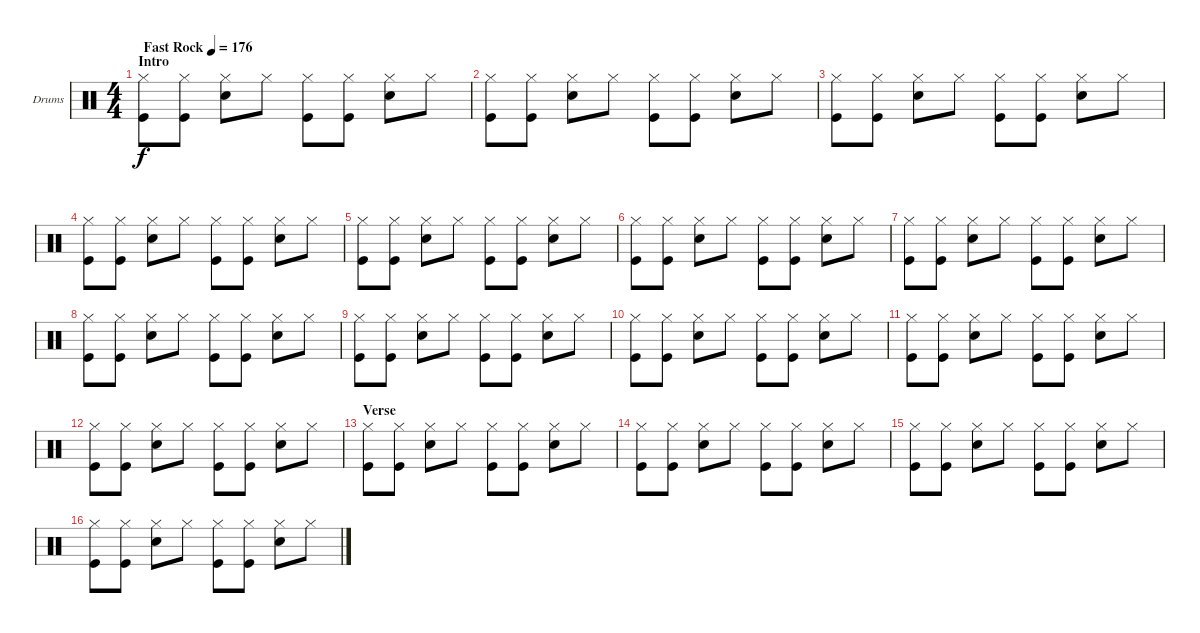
\defaultSystemsLayout 4
\bracketExtendMode groupsimilarinstruments
\firstSystemTrackNameOrientation horizontal
\otherSystemsTrackNameOrientation horizontal
\track ("Drumkit" "Drums") {instrument percussion}
\staff {score}
\articulation defaults
\ts (4 4)
\section ("" "Intro")
\tempo (176 "Fast Rock")
\clef neutral
\scale
1.05675
\ks c
("Hi-Hat (closed)" "Kick (hit)").8{lyrics (0 "") lyrics (1 "") lyrics (2 "") lyrics (3 "") lyrics (4 "") dy f} ("Hi-Hat (closed)" "Kick (hit)").8 ("Hi-Hat (closed)" "Snare (hit) 2").8 "Hi-Hat (closed)".8 ("Hi-Hat (closed)" "Kick (hit)").8 ("Hi-Hat (closed)" "Kick (hit)").8 ("Hi-Hat (closed)" "Snare (hit) 2").8 "Hi-Hat (closed)".8 |
\scale
0.943253 ("Hi-Hat (closed)" "Kick (hit)").8 ("Hi-Hat (closed)" "Kick (hit)").8 ("Hi-Hat (closed)" "Snare (hit) 2").8 "Hi-Hat (closed)".8 ("Hi-Hat (closed)" "Kick (hit)").8 ("Hi-Hat (closed)" "Kick (hit)").8 ("Hi-Hat (closed)" "Snare (hit) 2").8 "Hi-Hat (closed)".8 |
\scale
1.02648 ("Hi-Hat (closed)" "Kick (hit)").8 ("Hi-Hat (closed)" "Kick (hit)").8 ("Hi-Hat (closed)" "Snare (hit) 2").8 "Hi-Hat (closed)".8 ("Hi-Hat (closed)" "Kick (hit)").8 ("Hi-Hat (closed)" "Kick (hit)").8 ("Hi-Hat (closed)" "Snare (hit) 2").8 "Hi-Hat (closed)".8 |
\scale
0.973518 ("Hi-Hat (closed)" "Kick (hit)").8 ("Hi-Hat (closed)" "Kick (hit)").8 ("Hi-Hat (closed)" "Snare (hit) 2").8 "Hi-Hat (closed)".8 ("Hi-Hat (closed)" "Kick (hit)").8 ("Hi-Hat (closed)" "Kick (hit)").8 ("Hi-Hat (closed)" "Snare (hit) 2").8 "Hi-Hat (closed)".8 |
\scale
1.02648 ("Hi-Hat (closed)" "Kick (hit)").8 ("Hi-Hat (closed)" "Kick (hit)").8 ("Hi-Hat (closed)" "Snare (hit) 2").8 "Hi-Hat (closed)".8 ("Hi-Hat (closed)" "Kick (hit)").8 ("Hi-Hat (closed)" "Kick (hit)").8 ("Hi-Hat (closed)" "Snare (hit) 2").8 "Hi-Hat (closed)".8 |
\scale
0.973518 ("Hi-Hat (closed)" "Kick (hit)").8 ("Hi-Hat (closed)" "Kick (hit)").8 ("Hi-Hat (closed)" "Snare (hit) 2").8 "Hi-Hat (closed)".8 ("Hi-Hat (closed)" "Kick (hit)").8 ("Hi-Hat (closed)" "Kick (hit)").8 ("Hi-Hat (closed)" "Snare (hit) 2").8 "Hi-Hat (closed)".8 |
\scale
1.02648 ("Hi-Hat (closed)" "Kick (hit)").8 ("Hi-Hat (closed)" "Kick (hit)").8 ("Hi-Hat (closed)" "Snare (hit) 2").8 "Hi-Hat (closed)".8 ("Hi-Hat (closed)" "Kick (hit)").8 ("Hi-Hat (closed)" "Kick (hit)").8 ("Hi-Hat (closed)" "Snare (hit) 2").8 "Hi-Hat (closed)".8 |
\scale
0.973518 ("Hi-Hat (closed)" "Kick (hit)").8 ("Hi-Hat (closed)" "Kick (hit)").8 ("Hi-Hat (closed)" "Snare (hit) 2").8 "Hi-Hat (closed)".8 ("Hi-Hat (closed)" "Kick (hit)").8 ("Hi-Hat (closed)" "Kick (hit)").8 ("Hi-Hat (closed)" "Snare (hit) 2").8 "Hi-Hat (closed)".8 |
\scale
1.02648 ("Hi-Hat (closed)" "Kick (hit)").8 ("Hi-Hat (closed)" "Kick (hit)").8 ("Hi-Hat (closed)" "Snare (hit) 2").8 "Hi-Hat (closed)".8 ("Hi-Hat (closed)" "Kick (hit)").8 ("Hi-Hat (closed)" "Kick (hit)").8 ("Hi-Hat (closed)" "Snare (hit) 2").8 "Hi-Hat (closed)".8 |
\scale
0.973518 ("Hi-Hat (closed)" "Kick (hit)").8 ("Hi-Hat (closed)" "Kick (hit)").8 ("Hi-Hat (closed)" "Snare (hit) 2").8 "Hi-Hat (closed)".8 ("Hi-Hat (closed)" "Kick (hit)").8 ("Hi-Hat (closed)" "Kick (hit)").8 ("Hi-Hat (closed)" "Snare (hit) 2").8 "Hi-Hat (closed)".8 |
\scale
1.02648 ("Hi-Hat (closed)" "Kick (hit)").8 ("Hi-Hat (closed)" "Kick (hit)").8 ("Hi-Hat (closed)" "Snare (hit) 2").8 "Hi-Hat (closed)".8 ("Hi-Hat (closed)" "Kick (hit)").8 ("Hi-Hat (closed)" "Kick (hit)").8 ("Hi-Hat (closed)" "Snare (hit) 2").8 "Hi-Hat (closed)".8 |
\scale
0.973518 ("Hi-Hat (closed)" "Kick (hit)").8 ("Hi-Hat (closed)" "Kick (hit)").8 ("Hi-Hat (closed)" "Snare (hit) 2").8 "Hi-Hat (closed)".8 ("Hi-Hat (closed)" "Kick (hit)").8 ("Hi-Hat (closed)" "Kick (hit)").8 ("Hi-Hat (closed)" "Snare (hit) 2").8 "Hi-Hat (closed)".8 |
\section ("" "Verse")
\scale
1.02648 ("Hi-Hat (closed)" "Kick (hit)").8 ("Hi-Hat (closed)" "Kick (hit)").8 ("Hi-Hat (closed)" "Snare (hit) 2").8 "Hi-Hat (closed)".8 ("Hi-Hat (closed)" "Kick (hit)").8 ("Hi-Hat (closed)" "Kick (hit)").8 ("Hi-Hat (closed)" "Snare (hit) 2").8 "Hi-Hat (closed)".8 |
\scale
0.973518 ("Hi-Hat (closed)" "Kick (hit)").8 ("Hi-Hat (closed)" "Kick (hit)").8 ("Hi-Hat (closed)" "Snare (hit) 2").8 "Hi-Hat (closed)".8 ("Hi-Hat (closed)" "Kick (hit)").8 ("Hi-Hat (closed)" "Kick (hit)").8 ("Hi-Hat (closed)" "Snare (hit) 2").8 "Hi-Hat (closed)".8 |
\scale
1.02648 ("Hi-Hat (closed)" "Kick (hit)").8 ("Hi-Hat (closed)" "Kick (hit)").8 ("Hi-Hat (closed)" "Snare (hit) 2").8 "Hi-Hat (closed)".8 ("Hi-Hat (closed)" "Kick (hit)").8 ("Hi-Hat (closed)" "Kick (hit)").8 ("Hi-Hat (closed)" "Snare (hit) 2").8 "Hi-Hat (closed)".8 |
\scale
0.973518 ("Hi-Hat (closed)" "Kick (hit)").8 ("Hi-Hat (closed)" "Kick (hit)").8 ("Hi-Hat (closed)" "Snare (hit) 2").8 "Hi-Hat (closed)".8 ("Hi-Hat (closed)" "Kick (hit)").8 ("Hi-Hat (closed)" "Kick (hit)").8 ("Hi-Hat (closed)" "Snare (hit) 2").8 "Hi-Hat (closed)".8
